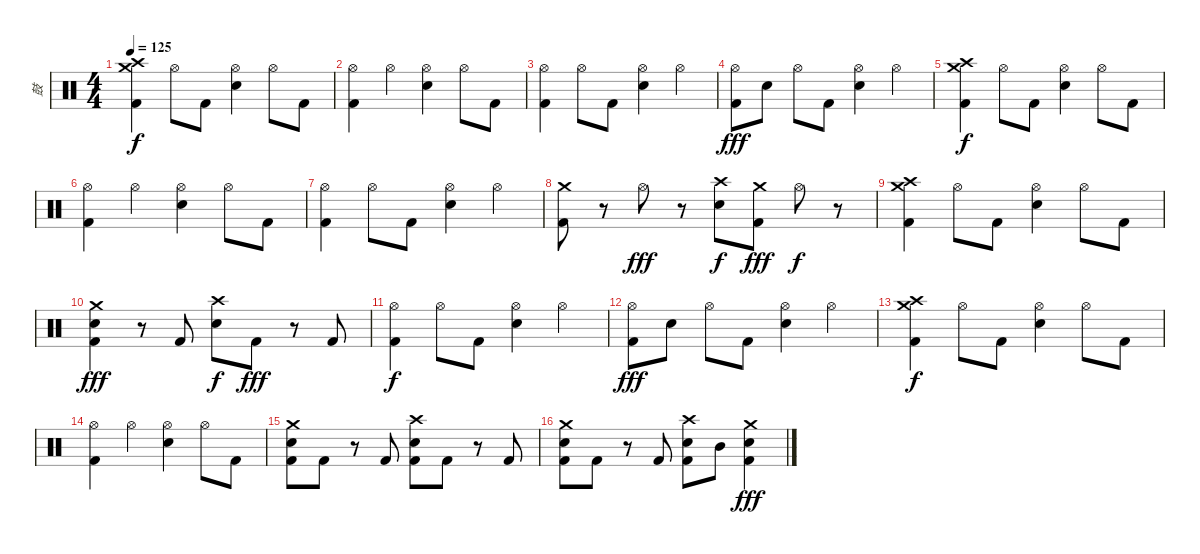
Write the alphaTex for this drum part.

\track ("鼓" "鼓") {instrument percussion}
\staff {score}
\articulation defaults
\ts (4 4)
\tempo 125
\clef neutral
\ks c
("Crash medium (hit)" "Crash high (hit)" "Kick (hit) 2").4{dy f} "Hi-Hat (open)".8 "Kick (hit) 2".8 ("Hi-Hat (open)" "Snare (hit) 2").4 "Hi-Hat (open)".8 "Kick (hit) 2".8 |
("Hi-Hat (open)" "Kick (hit) 2").4 "Hi-Hat (open)".4 ("Snare (hit) 2" "Hi-Hat (open)").4 "Hi-Hat (open)".8 "Kick (hit) 2".8 |
("Hi-Hat (open)" "Kick (hit) 2").4 "Hi-Hat (open)".8 "Kick (hit) 2".8 ("Hi-Hat (open)" "Snare (hit) 2").4 "Hi-Hat (open)".4 |
("Hi-Hat (open)" "Kick (hit) 2").8{dy fff} "Snare (hit) 2".8 "Hi-Hat (open)".8 "Kick (hit) 2".8 ("Snare (hit) 2" "Hi-Hat (open)").4 "Hi-Hat (open)".4 |
("Crash medium (hit)" "Crash high (hit)" "Kick (hit) 2").4{dy f} "Hi-Hat (open)".8 "Kick (hit) 2".8 ("Hi-Hat (open)" "Snare (hit) 2").4 "Hi-Hat (open)".8 "Kick (hit) 2".8 |
("Hi-Hat (open)" "Kick (hit) 2").4 "Hi-Hat (open)".4 ("Snare (hit) 2" "Hi-Hat (open)").4 "Hi-Hat (open)".8 "Kick (hit) 2".8 |
("Hi-Hat (open)" "Kick (hit) 2").4 "Hi-Hat (open)".8 "Kick (hit) 2".8 ("Hi-Hat (open)" "Snare (hit) 2").4 "Hi-Hat (open)".4 |
("Crash medium (hit)" "Kick (hit) 2").8 r.8 "Hi-Hat (open)".8{dy fff} r.8 ("Snare (hit) 2" "Crash high (hit)").8{dy f} ("Crash medium (hit)" "Kick (hit) 2").8{dy fff} "Hi-Hat (open)".8{dy f} r.8 |
("Crash medium (hit)" "Crash high (hit)" "Kick (hit) 2").4 "Hi-Hat (open)".8 "Kick (hit) 2".8 ("Hi-Hat (open)" "Snare (hit) 2").4 "Hi-Hat (open)".8 "Kick (hit) 2".8 |
("Crash medium (hit)" "Snare (hit) 2" "Kick (hit) 2").4{dy fff} r.8 "Kick (hit) 2".8 ("Crash high (hit)" "Snare (hit) 2").8{dy f} "Kick (hit) 2".8{dy fff} r.8 "Kick (hit) 2".8 |
("Hi-Hat (open)" "Kick (hit) 2").4{dy f} "Hi-Hat (open)".8 "Kick (hit) 2".8 ("Hi-Hat (open)" "Snare (hit) 2").4 "Hi-Hat (open)".4 |
("Hi-Hat (open)" "Kick (hit) 2").8{dy fff} "Snare (hit) 2".8 "Hi-Hat (open)".8 "Kick (hit) 2".8 ("Snare (hit) 2" "Hi-Hat (open)").4 "Hi-Hat (open)".4 |
("Crash medium (hit)" "Crash high (hit)" "Kick (hit) 2").4{dy f} "Hi-Hat (open)".8 "Kick (hit) 2".8 ("Hi-Hat (open)" "Snare (hit) 2").4 "Hi-Hat (open)".8 "Kick (hit) 2".8 |
("Hi-Hat (open)" "Kick (hit) 2").4 "Hi-Hat (open)".4 ("Snare (hit) 2" "Hi-Hat (open)").4 "Hi-Hat (open)".8 "Kick (hit) 2".8 |
("Snare (hit) 2" "Crash medium (hit)" "Kick (hit) 2").8 "Kick (hit) 2".8 r.8 "Kick (hit) 2".8 ("Crash high (hit)" "Snare (hit) 2" "Kick (hit) 2").8 "Kick (hit) 2".8 r.8 "Kick (hit) 2".8 |
("Snare (hit) 2" "Crash medium (hit)" "Kick (hit) 2").8 "Kick (hit) 2".8 r.8 "Kick (hit) 2".8 ("Crash high (hit)" "Snare (hit) 2" "Kick (hit) 2").8 "Mid Tom (hit)".8 ("Snare (hit) 2" "Crash medium (hit)" "Kick (hit) 2").4{dy fff}
